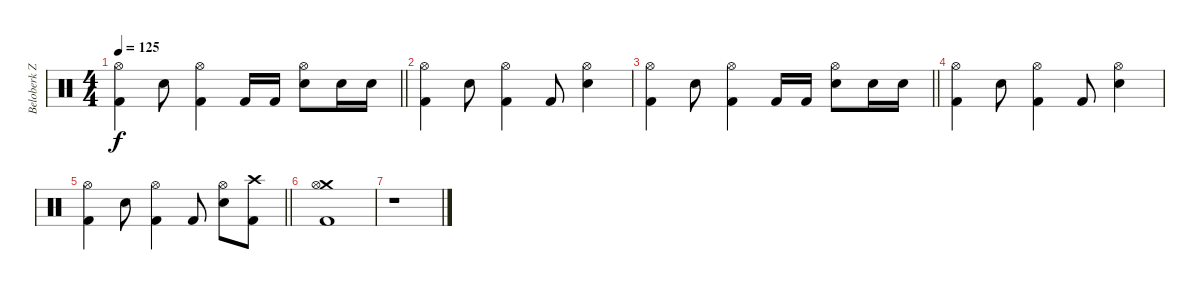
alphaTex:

\track ("Beloberk Zsolt - Dobok" "Beloberk Z") {instrument percussion}
\staff {score}
\articulation defaults
\ts (4 4)
\tempo 125
\clef neutral
\barLineRight lightlight
\ks c
("Hi-Hat (open)" "Kick (hit) 2").4{dy f} "Electric Snare (hit)".8 ("Hi-Hat (open)" "Kick (hit) 2").4 "Kick (hit) 2".16 "Kick (hit) 2".16 ("Hi-Hat (open)" "Electric Snare (hit)").8 "Electric Snare (hit)".16 "Electric Snare (hit)".16 |
("Hi-Hat (open)" "Kick (hit) 2").4 "Electric Snare (hit)".8 ("Hi-Hat (open)" "Kick (hit) 2").4 "Kick (hit) 2".8 ("Hi-Hat (open)" "Electric Snare (hit)").4 |
\barLineRight lightlight
("Hi-Hat (open)" "Kick (hit) 2").4 "Electric Snare (hit)".8 ("Hi-Hat (open)" "Kick (hit) 2").4 "Kick (hit) 2".16 "Kick (hit) 2".16 ("Hi-Hat (open)" "Electric Snare (hit)").8 "Electric Snare (hit)".16 "Electric Snare (hit)".16 |
("Hi-Hat (open)" "Kick (hit) 2").4 "Electric Snare (hit)".8 ("Hi-Hat (open)" "Kick (hit) 2").4 "Kick (hit) 2".8 ("Hi-Hat (open)" "Electric Snare (hit)").4 |
\barLineRight lightlight
("Hi-Hat (open)" "Kick (hit) 2").4 "Electric Snare (hit)".8 ("Hi-Hat (open)" "Kick (hit) 2").4 "Kick (hit) 2".8 ("Hi-Hat (open)" "Electric Snare (hit)").8 ("Crash high (hit)" "Kick (hit) 2").8 |
("Crash medium (hit)" "Hi-Hat (open)" "Kick (hit) 2").1 |
r.1
